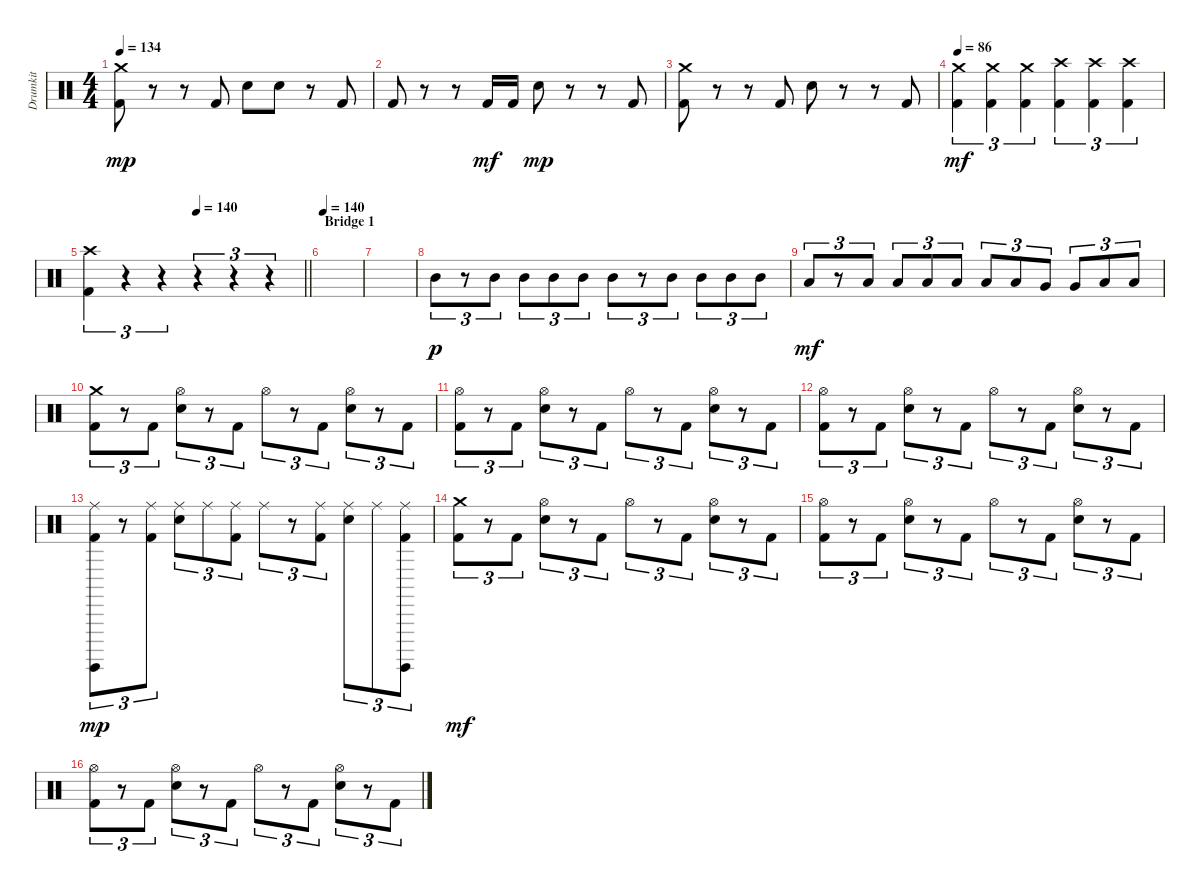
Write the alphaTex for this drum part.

\track ("Drumkit" "Drumkit") {instrument percussion}
\staff {score}
\articulation defaults
\ts (4 4)
\tempo 134
\clef neutral
\ks c
("Kick (hit) 2" "Crash medium (hit)").8{dy mp} r.8 r.8 "Kick (hit) 2".8 "Snare (hit) 2".8 "Snare (hit) 2".8 r.8 "Kick (hit) 2".8 |
"Kick (hit) 2".8 r.8 r.8 "Kick (hit) 2".16{dy mf} "Kick (hit) 2".16 "Snare (hit) 2".8{dy mp} r.8 r.8 "Kick (hit) 2".8 |
("Kick (hit) 2" "Crash medium (hit)").8 r.8 r.8 "Kick (hit) 2".8 "Snare (hit) 2".8 r.8 r.8 "Kick (hit) 2".8 |
\tempo 86
("Kick (hit) 2" "Crash medium (hit)").4{tu (3 2) dy mf} ("Kick (hit) 2" "Crash medium (hit)").4{tu (3 2)} ("Kick (hit) 2" "Crash medium (hit)").4{tu (3 2)} ("Kick (hit) 2" "Crash high (hit)").4{tu (3 2)} ("Kick (hit) 2" "Crash high (hit)").4{tu (3 2)} ("Kick (hit) 2" "Crash high (hit)").4{tu (3 2)} |
\tempo (140 0.5)
\barLineRight lightlight
("Kick (hit) 2" "Crash high (hit)").4{tu (3 2)} r.4{tu (3 2)} r.4{tu (3 2)} r.4{tu (3 2)} r.4{tu (3 2)} r.4{tu (3 2)} |
\section ("" "Bridge 1")
\tempo 140
|
|
"Mid Tom (hit)".8{tu (3 2) dy p} r.8{tu (3 2)} "Mid Tom (hit)".8{tu (3 2)} "Mid Tom (hit)".8{tu (3 2)} "Mid Tom (hit)".8{tu (3 2)} "Mid Tom (hit)".8{tu (3 2)} "Mid Tom (hit)".8{tu (3 2)} r.8{tu (3 2)} "Mid Tom (hit)".8{tu (3 2)} "Mid Tom (hit)".8{tu (3 2)} "Mid Tom (hit)".8{tu (3 2)} "Mid Tom (hit)".8{tu (3 2)} |
"Low Tom (hit)".8{tu (3 2) dy mf} r.8{tu (3 2)} "Low Tom (hit)".8{tu (3 2)} "Low Tom (hit)".8{tu (3 2)} "Low Tom (hit)".8{tu (3 2)} "Low Tom (hit)".8{tu (3 2)} "Low Tom (hit)".8{tu (3 2)} "Low Tom (hit)".8{tu (3 2)} "Very Low Tom (hit)".8{tu (3 2)} "Very Low Tom (hit)".8{tu (3 2)} "Low Floor Tom (hit)".8{tu (3 2)} "Low Floor Tom (hit)".8{tu (3 2)} |
("Kick (hit) 2" "Crash medium (hit)").8{tu (3 2)} r.8{tu (3 2)} "Kick (hit) 2".8{tu (3 2)} ("Snare (hit) 2" "Hi-Hat (open)").8{tu (3 2)} r.8{tu (3 2)} "Kick (hit) 2".8{tu (3 2)} "Hi-Hat (open)".8{tu (3 2)} r.8{tu (3 2)} "Kick (hit) 2".8{tu (3 2)} ("Snare (hit) 2" "Hi-Hat (open)").8{tu (3 2)} r.8{tu (3 2)} "Kick (hit) 2".8{tu (3 2)} |
("Kick (hit) 2" "Hi-Hat (open)").8{tu (3 2)} r.8{tu (3 2)} "Kick (hit) 2".8{tu (3 2)} ("Snare (hit) 2" "Hi-Hat (open)").8{tu (3 2)} r.8{tu (3 2)} "Kick (hit) 2".8{tu (3 2)} "Hi-Hat (open)".8{tu (3 2)} r.8{tu (3 2)} "Kick (hit) 2".8{tu (3 2)} ("Snare (hit) 2" "Hi-Hat (open)").8{tu (3 2)} r.8{tu (3 2)} "Kick (hit) 2".8{tu (3 2)} |
("Kick (hit) 2" "Hi-Hat (open)").8{tu (3 2)} r.8{tu (3 2)} "Kick (hit) 2".8{tu (3 2)} ("Snare (hit) 2" "Hi-Hat (open)").8{tu (3 2)} r.8{tu (3 2)} "Kick (hit) 2".8{tu (3 2)} "Hi-Hat (open)".8{tu (3 2)} r.8{tu (3 2)} "Kick (hit) 2".8{tu (3 2)} ("Snare (hit) 2" "Hi-Hat (open)").8{tu (3 2)} r.8{tu (3 2)} "Kick (hit) 2".8{tu (3 2)} |
("Kick (hit) 2" "Surdo (hit)" "Ride (middle)").8{tu (3 2) dy mp} r.8{tu (3 2)} ("Kick (hit) 2" "Ride (middle)").8{tu (3 2)} ("Snare (hit) 2" "Ride (middle)").8{tu (3 2)} "Ride (middle)".8{tu (3 2)} ("Kick (hit) 2" "Ride (middle)").8{tu (3 2)} "Ride (middle)".8{tu (3 2)} r.8{tu (3 2)} ("Kick (hit) 2" "Ride (middle)").8{tu (3 2)} ("Snare (hit) 2" "Ride (middle)").8{tu (3 2)} "Ride (middle)".8{tu (3 2)} ("Kick (hit) 2" "Surdo (hit)" "Ride (middle)").8{tu (3 2)} |
("Kick (hit) 2" "Crash medium (hit)").8{tu (3 2) dy mf} r.8{tu (3 2)} "Kick (hit) 2".8{tu (3 2)} ("Snare (hit) 2" "Hi-Hat (open)").8{tu (3 2)} r.8{tu (3 2)} "Kick (hit) 2".8{tu (3 2)} "Hi-Hat (open)".8{tu (3 2)} r.8{tu (3 2)} "Kick (hit) 2".8{tu (3 2)} ("Snare (hit) 2" "Hi-Hat (open)").8{tu (3 2)} r.8{tu (3 2)} "Kick (hit) 2".8{tu (3 2)} |
("Kick (hit) 2" "Hi-Hat (open)").8{tu (3 2)} r.8{tu (3 2)} "Kick (hit) 2".8{tu (3 2)} ("Snare (hit) 2" "Hi-Hat (open)").8{tu (3 2)} r.8{tu (3 2)} "Kick (hit) 2".8{tu (3 2)} "Hi-Hat (open)".8{tu (3 2)} r.8{tu (3 2)} "Kick (hit) 2".8{tu (3 2)} ("Snare (hit) 2" "Hi-Hat (open)").8{tu (3 2)} r.8{tu (3 2)} "Kick (hit) 2".8{tu (3 2)} |
("Kick (hit) 2" "Hi-Hat (open)").8{tu (3 2)} r.8{tu (3 2)} "Kick (hit) 2".8{tu (3 2)} ("Snare (hit) 2" "Hi-Hat (open)").8{tu (3 2)} r.8{tu (3 2)} "Kick (hit) 2".8{tu (3 2)} "Hi-Hat (open)".8{tu (3 2)} r.8{tu (3 2)} "Kick (hit) 2".8{tu (3 2)} ("Snare (hit) 2" "Hi-Hat (open)").8{tu (3 2)} r.8{tu (3 2)} "Kick (hit) 2".8{tu (3 2)}
